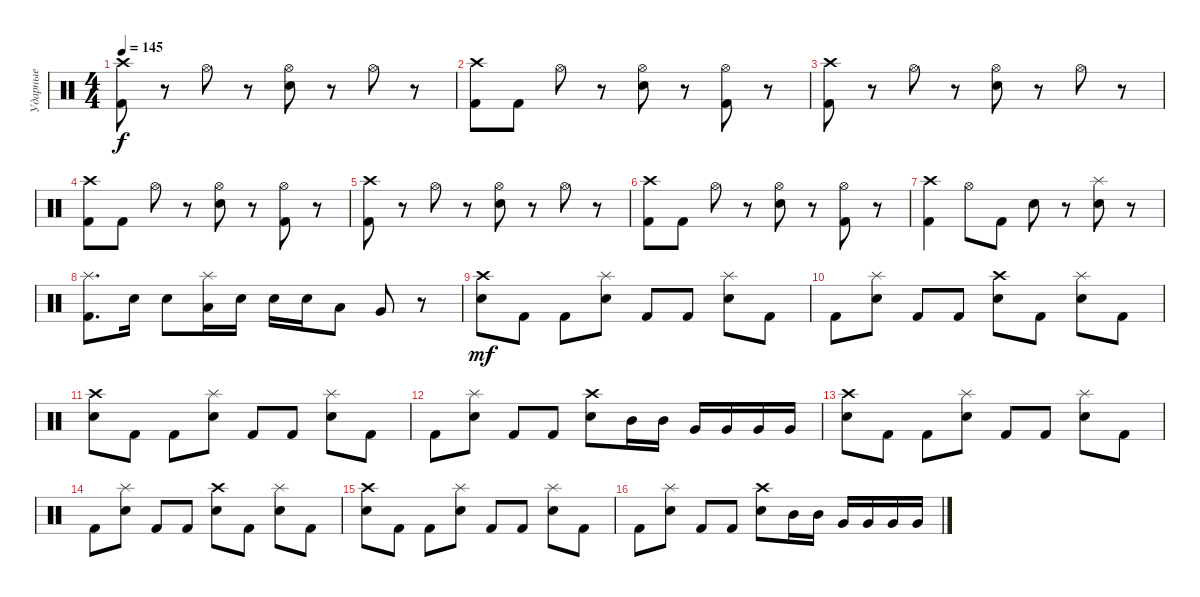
\track ("Ударные" "Ударные") {instrument percussion}
\staff {score}
\articulation defaults
\ts (4 4)
\tempo 145
\clef neutral
\ks c
("Crash high (hit)" "Kick (hit) 2").8{dy f} r.8 "Hi-Hat (open)".8 r.8 ("Hi-Hat (open)" "Snare (hit) 2").8 r.8 "Hi-Hat (open)".8 r.8 |
("Crash high (hit)" "Kick (hit) 2").8 "Kick (hit) 2".8 "Hi-Hat (open)".8 r.8 ("Hi-Hat (open)" "Snare (hit) 2").8 r.8 ("Hi-Hat (open)" "Kick (hit) 2").8 r.8 |
("Crash high (hit)" "Kick (hit) 2").8 r.8 "Hi-Hat (open)".8 r.8 ("Hi-Hat (open)" "Snare (hit) 2").8 r.8 "Hi-Hat (open)".8 r.8 |
("Crash high (hit)" "Kick (hit) 2").8 "Kick (hit) 2".8 "Hi-Hat (open)".8 r.8 ("Hi-Hat (open)" "Snare (hit) 2").8 r.8 ("Hi-Hat (open)" "Kick (hit) 2").8 r.8 |
("Crash high (hit)" "Kick (hit) 2").8 r.8 "Hi-Hat (open)".8 r.8 ("Hi-Hat (open)" "Snare (hit) 2").8 r.8 "Hi-Hat (open)".8 r.8 |
("Crash high (hit)" "Kick (hit) 2").8 "Kick (hit) 2".8 "Hi-Hat (open)".8 r.8 ("Hi-Hat (open)" "Snare (hit) 2").8 r.8 ("Hi-Hat (open)" "Kick (hit) 2").8 r.8 |
("Crash high (hit)" "Kick (hit) 2").4 "Hi-Hat (open)".8 "Kick (hit) 2".8 "Snare (hit) 2".8 r.8 ("Splash (hit)" "Snare (hit) 2").8 r.8 |
("Splash (hit)" "Kick (hit) 2").8{d} "Snare (hit) 2".16 "Snare (hit) 2".8 ("Splash (hit)" "Low Tom (hit)").16 "Snare (hit) 2".16 "Snare (hit) 2".16 "Snare (hit) 2".16 "Low Tom (hit)".8 "Very Low Tom (hit)".8 r.8 |
("Crash high (hit)" "Snare (hit) 2").8{dy mf} "Kick (hit) 2".8 "Kick (hit) 2".8 ("Splash (hit)" "Snare (hit) 2").8 "Kick (hit) 2".8 "Kick (hit) 2".8 ("Splash (hit)" "Snare (hit) 2").8 "Kick (hit) 2".8 |
"Kick (hit) 2".8 ("Splash (hit)" "Snare (hit) 2").8 "Kick (hit) 2".8 "Kick (hit) 2".8 ("Crash high (hit)" "Snare (hit) 2").8 "Kick (hit) 2".8 ("Splash (hit)" "Snare (hit) 2").8 "Kick (hit) 2".8 |
("Crash high (hit)" "Snare (hit) 2").8 "Kick (hit) 2".8 "Kick (hit) 2".8 ("Splash (hit)" "Snare (hit) 2").8 "Kick (hit) 2".8 "Kick (hit) 2".8 ("Splash (hit)" "Snare (hit) 2").8 "Kick (hit) 2".8 |
"Kick (hit) 2".8 ("Splash (hit)" "Snare (hit) 2").8 "Kick (hit) 2".8 "Kick (hit) 2".8 ("Crash high (hit)" "Snare (hit) 2").8 "Mid Tom (hit)".16 "Mid Tom (hit)".16 "Very Low Tom (hit)".16 "Very Low Tom (hit)".16 "Very Low Tom (hit)".16 "Very Low Tom (hit)".16 |
("Crash high (hit)" "Snare (hit) 2").8 "Kick (hit) 2".8 "Kick (hit) 2".8 ("Splash (hit)" "Snare (hit) 2").8 "Kick (hit) 2".8 "Kick (hit) 2".8 ("Splash (hit)" "Snare (hit) 2").8 "Kick (hit) 2".8 |
"Kick (hit) 2".8 ("Splash (hit)" "Snare (hit) 2").8 "Kick (hit) 2".8 "Kick (hit) 2".8 ("Crash high (hit)" "Snare (hit) 2").8 "Kick (hit) 2".8 ("Splash (hit)" "Snare (hit) 2").8 "Kick (hit) 2".8 |
("Crash high (hit)" "Snare (hit) 2").8 "Kick (hit) 2".8 "Kick (hit) 2".8 ("Splash (hit)" "Snare (hit) 2").8 "Kick (hit) 2".8 "Kick (hit) 2".8 ("Splash (hit)" "Snare (hit) 2").8 "Kick (hit) 2".8 |
"Kick (hit) 2".8 ("Splash (hit)" "Snare (hit) 2").8 "Kick (hit) 2".8 "Kick (hit) 2".8 ("Crash high (hit)" "Snare (hit) 2").8 "Mid Tom (hit)".16 "Mid Tom (hit)".16 "Very Low Tom (hit)".16 "Very Low Tom (hit)".16 "Very Low Tom (hit)".16 "Very Low Tom (hit)".16
